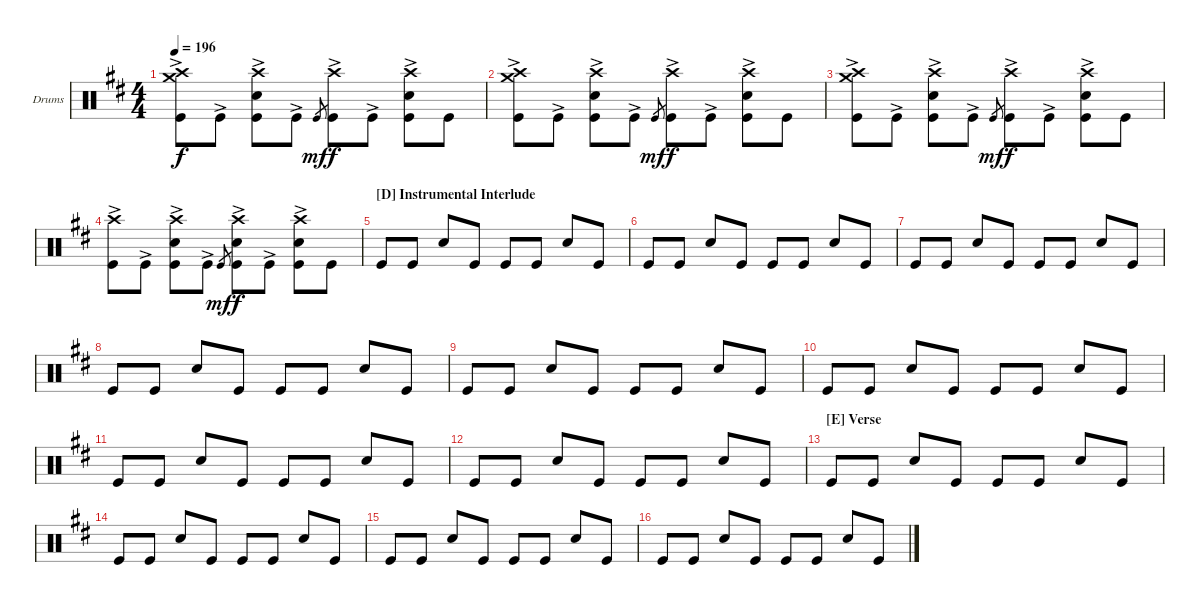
\defaultSystemsLayout 4
\bracketExtendMode groupsimilarinstruments
\firstSystemTrackNameOrientation horizontal
\otherSystemsTrackNameOrientation horizontal
\track ("Drumkit" "Drums") {instrument percussion}
\staff {score}
\articulation defaults
\ts (4 4)
\tempo 196
\clef neutral
\ks d
("Crash medium (hit)" "Crash high (hit)" "Kick (hit)"{ac}).8{dy f} "Kick (hit)"{ac}.8 ("Crash high (hit)" "Snare (hit) 2" "Kick (hit)"{ac}).8 "Kick (hit)"{ac}.8 "Kick (hit)".8{gr dy mf} ("Crash high (hit)" "Kick (hit)"{ac}).8{dy f} "Kick (hit)"{ac}.8 ("Crash high (hit)" "Snare (hit) 2" "Kick (hit)"{ac}).8 "Kick (hit)".8 |
("Crash medium (hit)" "Crash high (hit)" "Kick (hit)"{ac}).8 "Kick (hit)"{ac}.8 ("Crash high (hit)" "Snare (hit) 2" "Kick (hit)"{ac}).8 "Kick (hit)"{ac}.8 "Kick (hit)".8{gr dy mf} ("Crash high (hit)" "Kick (hit)"{ac}).8{dy f} "Kick (hit)"{ac}.8 ("Crash high (hit)" "Snare (hit) 2" "Kick (hit)"{ac}).8 "Kick (hit)".8 |
("Crash medium (hit)" "Crash high (hit)" "Kick (hit)"{ac}).8 "Kick (hit)"{ac}.8 ("Crash high (hit)" "Snare (hit) 2" "Kick (hit)"{ac}).8 "Kick (hit)"{ac}.8 "Kick (hit)".8{gr dy mf} ("Crash high (hit)" "Kick (hit)"{ac}).8{dy f} "Kick (hit)"{ac}.8 ("Crash high (hit)" "Snare (hit) 2" "Kick (hit)"{ac}).8 "Kick (hit)".8 |
("Crash high (hit)" "Kick (hit)"{ac}).8 "Kick (hit)"{ac}.8 ("Crash high (hit)" "Snare (hit) 2" "Kick (hit)"{ac}).8 "Kick (hit)"{ac}.8 "Kick (hit)".8{gr dy mf} ("Crash high (hit)" "Snare (hit) 2" "Kick (hit)"{ac}).8{dy f} "Kick (hit)"{ac}.8 ("Crash high (hit)" "Snare (hit) 2" "Kick (hit)"{ac}).8 "Kick (hit)".8 |
\section ("D" "Instrumental Interlude")
"Kick (hit)".8 "Kick (hit)".8 "Snare (hit) 2".8 "Kick (hit)".8 "Kick (hit)".8 "Kick (hit)".8 "Snare (hit) 2".8 "Kick (hit)".8 |
"Kick (hit)".8 "Kick (hit)".8 "Snare (hit) 2".8 "Kick (hit)".8 "Kick (hit)".8 "Kick (hit)".8 "Snare (hit) 2".8 "Kick (hit)".8 |
"Kick (hit)".8 "Kick (hit)".8 "Snare (hit) 2".8 "Kick (hit)".8 "Kick (hit)".8 "Kick (hit)".8 "Snare (hit) 2".8 "Kick (hit)".8 |
"Kick (hit)".8 "Kick (hit)".8 "Snare (hit) 2".8 "Kick (hit)".8 "Kick (hit)".8 "Kick (hit)".8 "Snare (hit) 2".8 "Kick (hit)".8 |
"Kick (hit)".8 "Kick (hit)".8 "Snare (hit) 2".8 "Kick (hit)".8 "Kick (hit)".8 "Kick (hit)".8 "Snare (hit) 2".8 "Kick (hit)".8 |
"Kick (hit)".8 "Kick (hit)".8 "Snare (hit) 2".8 "Kick (hit)".8 "Kick (hit)".8 "Kick (hit)".8 "Snare (hit) 2".8 "Kick (hit)".8 |
"Kick (hit)".8 "Kick (hit)".8 "Snare (hit) 2".8 "Kick (hit)".8 "Kick (hit)".8 "Kick (hit)".8 "Snare (hit) 2".8 "Kick (hit)".8 |
"Kick (hit)".8 "Kick (hit)".8 "Snare (hit) 2".8 "Kick (hit)".8 "Kick (hit)".8 "Kick (hit)".8 "Snare (hit) 2".8 "Kick (hit)".8 |
\section ("E" "Verse")
"Kick (hit)".8 "Kick (hit)".8 "Snare (hit) 2".8 "Kick (hit)".8 "Kick (hit)".8 "Kick (hit)".8 "Snare (hit) 2".8 "Kick (hit)".8 |
"Kick (hit)".8 "Kick (hit)".8 "Snare (hit) 2".8 "Kick (hit)".8 "Kick (hit)".8 "Kick (hit)".8 "Snare (hit) 2".8 "Kick (hit)".8 |
"Kick (hit)".8 "Kick (hit)".8 "Snare (hit) 2".8 "Kick (hit)".8 "Kick (hit)".8 "Kick (hit)".8 "Snare (hit) 2".8 "Kick (hit)".8 |
"Kick (hit)".8 "Kick (hit)".8 "Snare (hit) 2".8 "Kick (hit)".8 "Kick (hit)".8 "Kick (hit)".8 "Snare (hit) 2".8 "Kick (hit)".8
